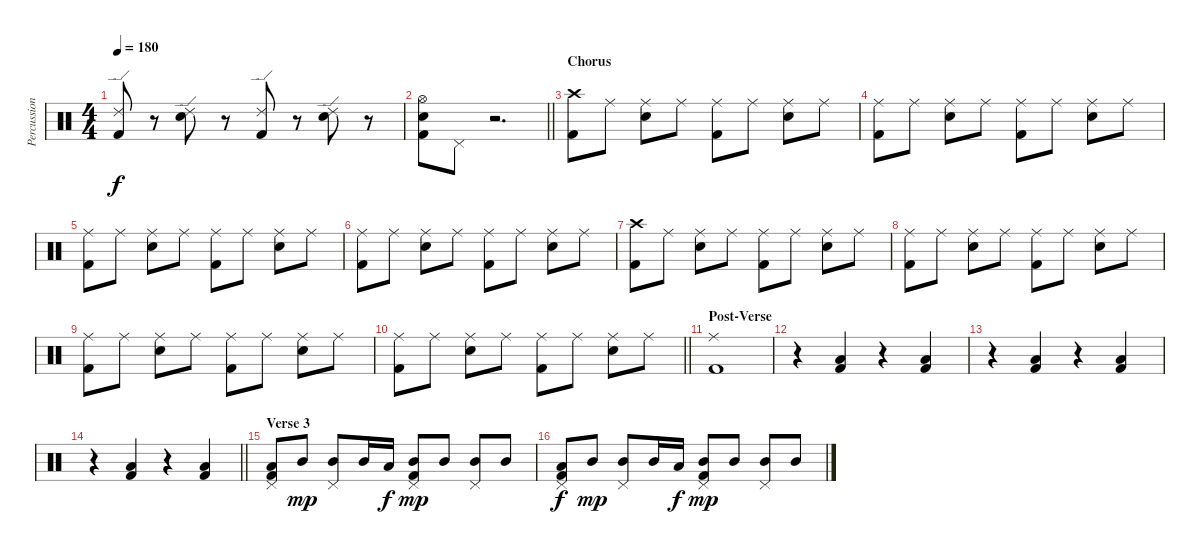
\track ("Percussion" "Percussion") {instrument percussion}
\staff {score}
\articulation defaults
\ts (4 4)
\tempo 180
\clef neutral
\ks c
("Ride (edge) 2" "Kick (hit) 2").8{dy f} r.8 ("Ride (edge) 2" "Snare (hit) 2").8 r.8 ("Ride (edge) 2" "Kick (hit) 2").8 r.8 ("Ride (edge) 2" "Snare (hit) 2").8 r.8 |
\barLineRight lightlight
("Hi-Hat (open)" "Snare (hit) 2" "Kick (hit) 2").8 "Pedal Hi-Hat (hit)".8 r.2{d} |
\section ("" "Chorus")
("Crash high (hit)" "Kick (hit) 2").8 "Ride (middle)".8 ("Ride (middle)" "Snare (hit) 2").8 "Ride (middle)".8 ("Ride (middle)" "Kick (hit) 2").8 "Ride (middle)".8 ("Ride (middle)" "Snare (hit) 2").8 "Ride (middle)".8 |
("Ride (middle)" "Kick (hit) 2").8 "Ride (middle)".8 ("Ride (middle)" "Snare (hit) 2").8 "Ride (middle)".8 ("Ride (middle)" "Kick (hit) 2").8 "Ride (middle)".8 ("Ride (middle)" "Snare (hit) 2").8 "Ride (middle)".8 |
("Ride (middle)" "Kick (hit) 2").8 "Ride (middle)".8 ("Ride (middle)" "Snare (hit) 2").8 "Ride (middle)".8 ("Ride (middle)" "Kick (hit) 2").8 "Ride (middle)".8 ("Ride (middle)" "Snare (hit) 2").8 "Ride (middle)".8 |
("Ride (middle)" "Kick (hit) 2").8 "Ride (middle)".8 ("Ride (middle)" "Snare (hit) 2").8 "Ride (middle)".8 ("Ride (middle)" "Kick (hit) 2").8 "Ride (middle)".8 ("Ride (middle)" "Snare (hit) 2").8 "Ride (middle)".8 |
("Crash high (hit)" "Kick (hit) 2").8 "Ride (middle)".8 ("Ride (middle)" "Snare (hit) 2").8 "Ride (middle)".8 ("Ride (middle)" "Kick (hit) 2").8 "Ride (middle)".8 ("Ride (middle)" "Snare (hit) 2").8 "Ride (middle)".8 |
("Ride (middle)" "Kick (hit) 2").8 "Ride (middle)".8 ("Ride (middle)" "Snare (hit) 2").8 "Ride (middle)".8 ("Ride (middle)" "Kick (hit) 2").8 "Ride (middle)".8 ("Ride (middle)" "Snare (hit) 2").8 "Ride (middle)".8 |
("Ride (middle)" "Kick (hit) 2").8 "Ride (middle)".8 ("Ride (middle)" "Snare (hit) 2").8 "Ride (middle)".8 ("Ride (middle)" "Kick (hit) 2").8 "Ride (middle)".8 ("Ride (middle)" "Snare (hit) 2").8 "Ride (middle)".8 |
\barLineRight lightlight
("Ride (middle)" "Kick (hit) 2").8 "Ride (middle)".8 ("Ride (middle)" "Snare (hit) 2").8 "Ride (middle)".8 ("Ride (middle)" "Kick (hit) 2").8 "Ride (middle)".8 ("Ride (middle)" "Snare (hit) 2").8 "Ride (middle)".8 |
\section ("" "Post-Verse")
("Ride (middle)" "Kick (hit) 2").1 |
r.4 ("Low Floor Tom (hit)" "Kick (hit) 2").4 r.4 ("Low Floor Tom (hit)" "Kick (hit) 2").4 |
r.4 ("Low Floor Tom (hit)" "Kick (hit) 2").4 r.4 ("Low Floor Tom (hit)" "Kick (hit) 2").4 |
\barLineRight lightlight
r.4 ("Low Floor Tom (hit)" "Kick (hit) 2").4 r.4 ("Low Floor Tom (hit)" "Kick (hit) 2").4 |
\section ("" "Verse 3")
("Pedal Hi-Hat (hit)" "Low Floor Tom (hit)" "Kick (hit) 2").8 "Mid Tom (hit)".8{dy mp} ("Pedal Hi-Hat (hit)" "Mid Tom (hit)").8 "Mid Tom (hit)".16 "Low Floor Tom (hit)".16{dy f} ("Pedal Hi-Hat (hit)" "Mid Tom (hit)" "Kick (hit) 2").8{dy mp} "Mid Tom (hit)".8 ("Pedal Hi-Hat (hit)" "Mid Tom (hit)").8 "Mid Tom (hit)".8 |
("Pedal Hi-Hat (hit)" "Low Floor Tom (hit)" "Kick (hit) 2").8{dy f} "Mid Tom (hit)".8{dy mp} ("Pedal Hi-Hat (hit)" "Mid Tom (hit)").8 "Mid Tom (hit)".16 "Low Floor Tom (hit)".16{dy f} ("Pedal Hi-Hat (hit)" "Mid Tom (hit)" "Kick (hit) 2").8{dy mp} "Mid Tom (hit)".8 ("Pedal Hi-Hat (hit)" "Mid Tom (hit)").8 "Mid Tom (hit)".8
